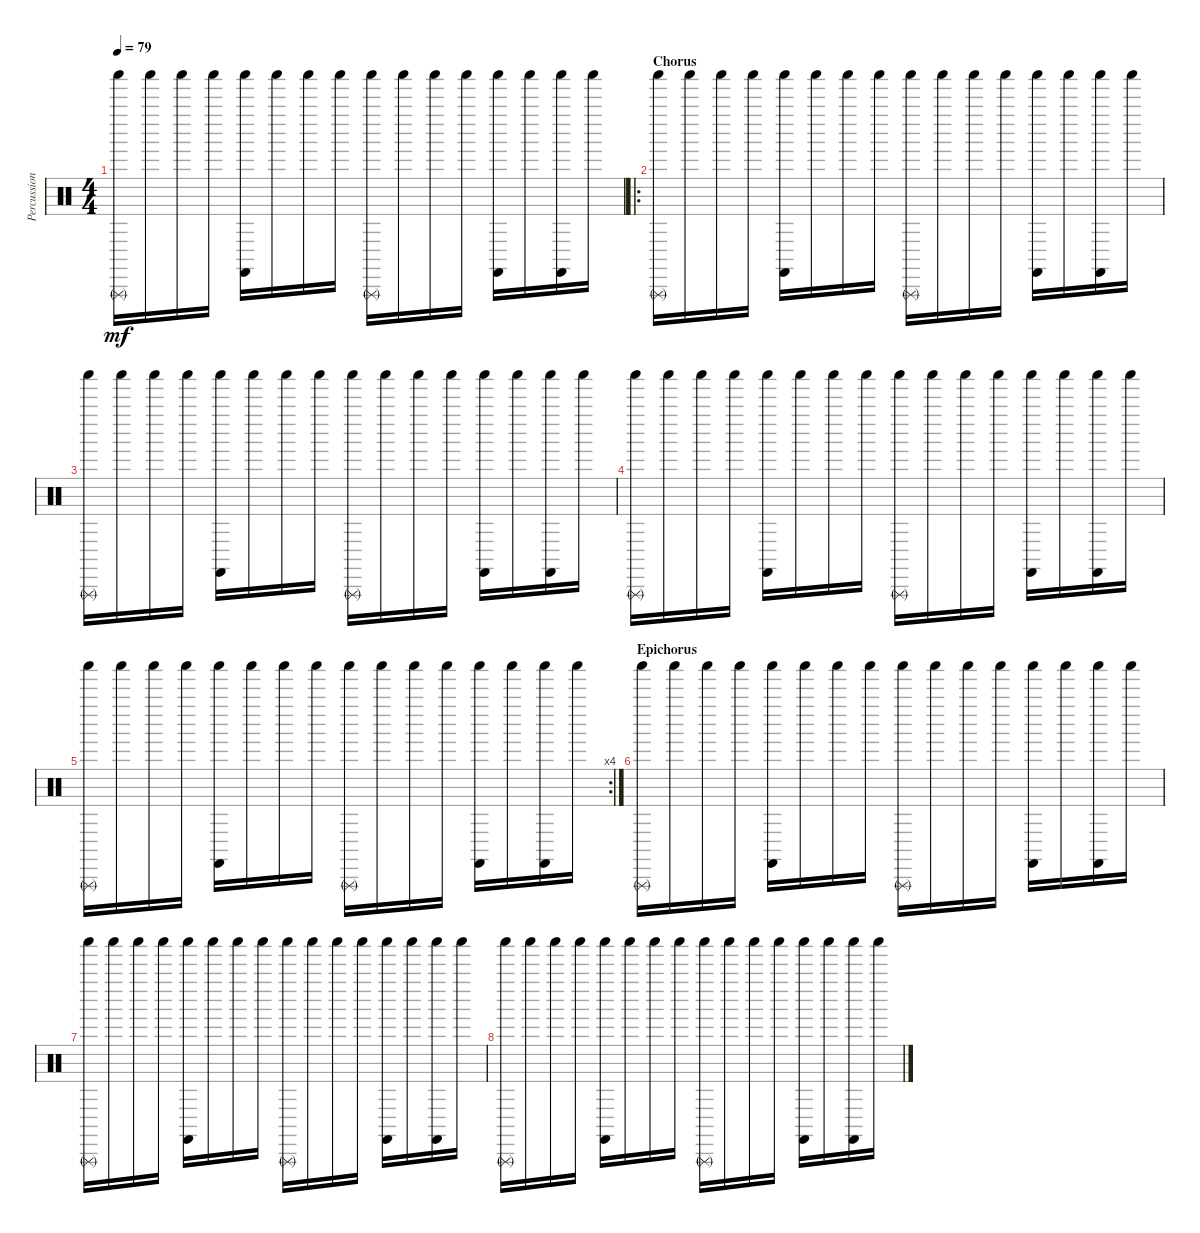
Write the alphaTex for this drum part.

\track ("Percussion" "Percussion") {instrument percussion}
\staff {score}
\articulation defaults
\ts (4 4)
\tempo 79
\clef neutral
\ks c
("Shaker (hit)" "Triangle (rnute)").16{dy mf} "Shaker (hit)".16 "Shaker (hit)".16 "Shaker (hit)".16 ("Shaker (hit)" "Castanets (hit)").16 "Shaker (hit)".16 "Shaker (hit)".16 "Shaker (hit)".16 ("Shaker (hit)" "Triangle (rnute)").16 "Shaker (hit)".16 "Shaker (hit)".16 "Shaker (hit)".16 ("Shaker (hit)" "Castanets (hit)").16 "Shaker (hit)".16 ("Shaker (hit)" "Castanets (hit)").16 "Shaker (hit)".16 |
\ro
\section ("" "Chorus")
("Shaker (hit)" "Triangle (rnute)").16 "Shaker (hit)".16 "Shaker (hit)".16 "Shaker (hit)".16 ("Shaker (hit)" "Castanets (hit)").16 "Shaker (hit)".16 "Shaker (hit)".16 "Shaker (hit)".16 ("Shaker (hit)" "Triangle (rnute)").16 "Shaker (hit)".16 "Shaker (hit)".16 "Shaker (hit)".16 ("Shaker (hit)" "Castanets (hit)").16 "Shaker (hit)".16 ("Shaker (hit)" "Castanets (hit)").16 "Shaker (hit)".16 |
("Shaker (hit)" "Triangle (rnute)").16 "Shaker (hit)".16 "Shaker (hit)".16 "Shaker (hit)".16 ("Shaker (hit)" "Castanets (hit)").16 "Shaker (hit)".16 "Shaker (hit)".16 "Shaker (hit)".16 ("Shaker (hit)" "Triangle (rnute)").16 "Shaker (hit)".16 "Shaker (hit)".16 "Shaker (hit)".16 ("Shaker (hit)" "Castanets (hit)").16 "Shaker (hit)".16 ("Shaker (hit)" "Castanets (hit)").16 "Shaker (hit)".16 |
("Shaker (hit)" "Triangle (rnute)").16 "Shaker (hit)".16 "Shaker (hit)".16 "Shaker (hit)".16 ("Shaker (hit)" "Castanets (hit)").16 "Shaker (hit)".16 "Shaker (hit)".16 "Shaker (hit)".16 ("Shaker (hit)" "Triangle (rnute)").16 "Shaker (hit)".16 "Shaker (hit)".16 "Shaker (hit)".16 ("Shaker (hit)" "Castanets (hit)").16 "Shaker (hit)".16 ("Shaker (hit)" "Castanets (hit)").16 "Shaker (hit)".16 |
\rc 4
("Shaker (hit)" "Triangle (rnute)").16 "Shaker (hit)".16 "Shaker (hit)".16 "Shaker (hit)".16 ("Shaker (hit)" "Castanets (hit)").16 "Shaker (hit)".16 "Shaker (hit)".16 "Shaker (hit)".16 ("Shaker (hit)" "Triangle (rnute)").16 "Shaker (hit)".16 "Shaker (hit)".16 "Shaker (hit)".16 ("Shaker (hit)" "Castanets (hit)").16 "Shaker (hit)".16 ("Shaker (hit)" "Castanets (hit)").16 "Shaker (hit)".16 |
\section ("" "Epichorus")
("Shaker (hit)" "Triangle (rnute)").16 "Shaker (hit)".16 "Shaker (hit)".16 "Shaker (hit)".16 ("Shaker (hit)" "Castanets (hit)").16 "Shaker (hit)".16 "Shaker (hit)".16 "Shaker (hit)".16 ("Shaker (hit)" "Triangle (rnute)").16 "Shaker (hit)".16 "Shaker (hit)".16 "Shaker (hit)".16 ("Shaker (hit)" "Castanets (hit)").16 "Shaker (hit)".16 ("Shaker (hit)" "Castanets (hit)").16 "Shaker (hit)".16 |
("Shaker (hit)" "Triangle (rnute)").16 "Shaker (hit)".16 "Shaker (hit)".16 "Shaker (hit)".16 ("Shaker (hit)" "Castanets (hit)").16 "Shaker (hit)".16 "Shaker (hit)".16 "Shaker (hit)".16 ("Shaker (hit)" "Triangle (rnute)").16 "Shaker (hit)".16 "Shaker (hit)".16 "Shaker (hit)".16 ("Shaker (hit)" "Castanets (hit)").16 "Shaker (hit)".16 ("Shaker (hit)" "Castanets (hit)").16 "Shaker (hit)".16 |
("Shaker (hit)" "Triangle (rnute)").16 "Shaker (hit)".16 "Shaker (hit)".16 "Shaker (hit)".16 ("Shaker (hit)" "Castanets (hit)").16 "Shaker (hit)".16 "Shaker (hit)".16 "Shaker (hit)".16 ("Shaker (hit)" "Triangle (rnute)").16 "Shaker (hit)".16 "Shaker (hit)".16 "Shaker (hit)".16 ("Shaker (hit)" "Castanets (hit)").16 "Shaker (hit)".16 ("Shaker (hit)" "Castanets (hit)").16 "Shaker (hit)".16
